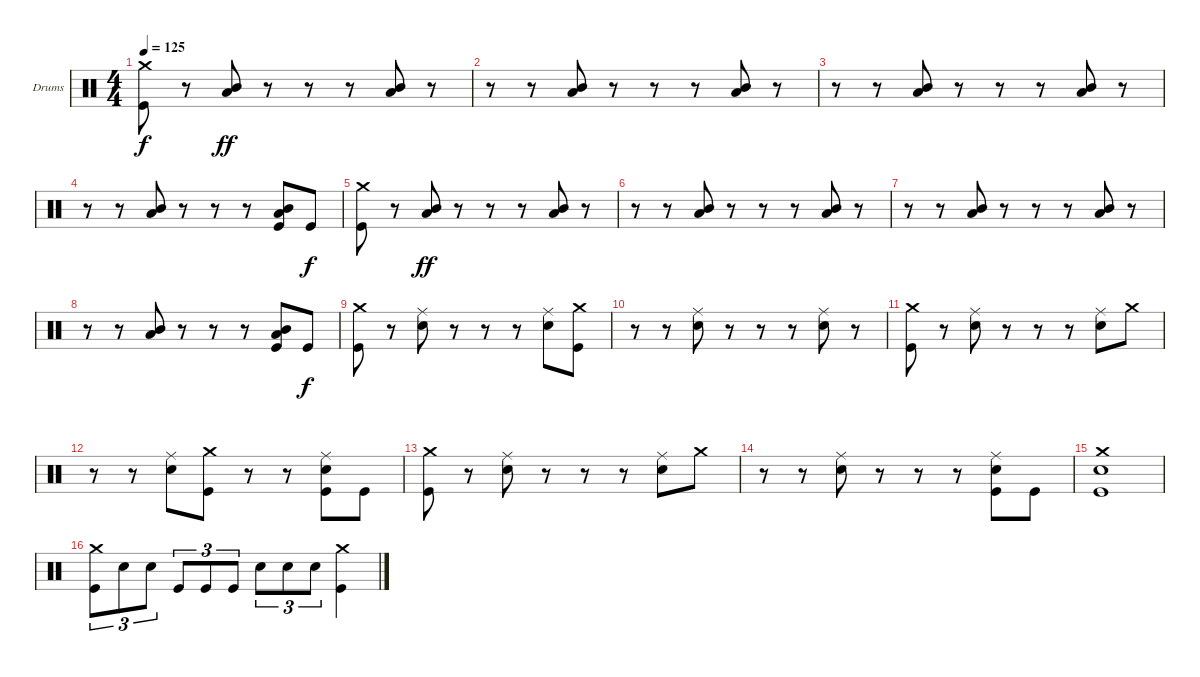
\defaultSystemsLayout 4
\bracketExtendMode groupsimilarinstruments
\firstSystemTrackNameOrientation horizontal
\otherSystemsTrackNameOrientation horizontal
\track ("Drumkit" "Drums") {instrument percussion}
\staff {score}
\articulation defaults
\ts (4 4)
\tempo 125
\clef neutral
\ks c
("Kick (hit)" "Crash medium (hit)").8{dy f} r.8 ("Mid Tom (hit)" "Low Tom (hit)").8{dy ff} r.8 r.8 r.8 ("Mid Tom (hit)" "Low Tom (hit)").8 r.8 |
r.8 r.8 ("Mid Tom (hit)" "Low Tom (hit)").8 r.8 r.8 r.8 ("Mid Tom (hit)" "Low Tom (hit)").8 r.8 |
r.8 r.8 ("Mid Tom (hit)" "Low Tom (hit)").8 r.8 r.8 r.8 ("Mid Tom (hit)" "Low Tom (hit)").8 r.8 |
r.8 r.8 ("Mid Tom (hit)" "Low Tom (hit)").8 r.8 r.8 r.8 ("Mid Tom (hit)" "Low Tom (hit)" "Kick (hit)").8 "Kick (hit)".8{dy f} |
("Kick (hit)" "Crash medium (hit)").8 r.8 ("Mid Tom (hit)" "Low Tom (hit)").8{dy ff} r.8 r.8 r.8 ("Mid Tom (hit)" "Low Tom (hit)").8 r.8 |
r.8 r.8 ("Mid Tom (hit)" "Low Tom (hit)").8 r.8 r.8 r.8 ("Mid Tom (hit)" "Low Tom (hit)").8 r.8 |
r.8 r.8 ("Mid Tom (hit)" "Low Tom (hit)").8 r.8 r.8 r.8 ("Mid Tom (hit)" "Low Tom (hit)").8 r.8 |
r.8 r.8 ("Mid Tom (hit)" "Low Tom (hit)").8 r.8 r.8 r.8 ("Mid Tom (hit)" "Low Tom (hit)" "Kick (hit)").8 "Kick (hit)".8{dy f} |
("Kick (hit)" "Crash medium (hit)").8 r.8 ("Snare (hit) 2" "Ride (middle)").8 r.8 r.8 r.8 ("Snare (hit) 2" "Ride (middle)").8 ("Kick (hit)" "Crash medium (hit)").8 |
r.8 r.8 ("Snare (hit) 2" "Ride (middle)").8 r.8 r.8 r.8 ("Snare (hit) 2" "Ride (middle)").8 r.8 |
("Kick (hit)" "Crash medium (hit)").8 r.8 ("Snare (hit) 2" "Ride (middle)").8 r.8 r.8 r.8 ("Snare (hit) 2" "Ride (middle)").8 "Crash medium (hit)".8 |
r.8 r.8 ("Snare (hit) 2" "Ride (middle)").8 ("Kick (hit)" "Crash medium (hit)").8 r.8 r.8 ("Kick (hit)" "Snare (hit) 2" "Ride (middle)").8 "Kick (hit)".8 |
("Kick (hit)" "Crash medium (hit)").8 r.8 ("Snare (hit) 2" "Ride (middle)").8 r.8 r.8 r.8 ("Snare (hit) 2" "Ride (middle)").8 "Crash medium (hit)".8 |
r.8 r.8 ("Snare (hit) 2" "Ride (middle)").8 r.8 r.8 r.8 ("Kick (hit)" "Snare (hit) 2" "Ride (middle)").8 "Kick (hit)".8 |
("Kick (hit)" "Snare (hit) 2" "Crash medium (hit)").1 |
("Kick (hit)" "Crash medium (hit)").8{tu (3 2)} "Snare (hit) 2".8{tu (3 2)} "Snare (hit) 2".8{tu (3 2)} "Kick (hit)".8{tu (3 2)} "Kick (hit)".8{tu (3 2)} "Kick (hit)".8{tu (3 2)} "Snare (hit) 2".8{tu (3 2)} "Snare (hit) 2".8{tu (3 2)} "Snare (hit) 2".8{tu (3 2)} ("Kick (hit)" "Crash medium (hit)").4
